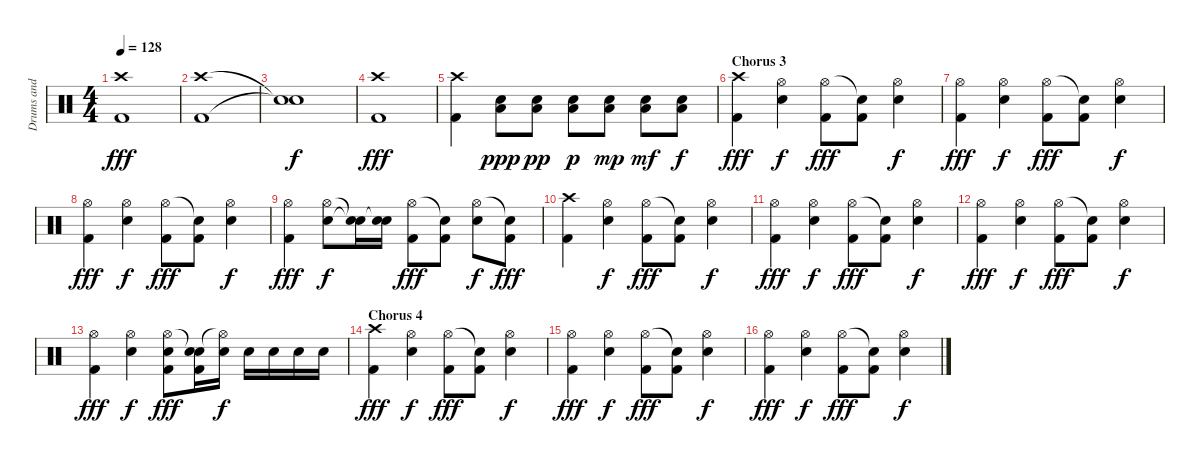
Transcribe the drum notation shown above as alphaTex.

\track ("Drums and Percussion" "Drums and ") {instrument percussion}
\staff {score}
\articulation defaults
\ts (4 4)
\tempo 128
\clef neutral
\ks c
("Crash high (hit)" "Kick (hit) 2").1{dy fff} |
("Crash high (hit)" "Kick (hit) 2").1 |
("Snare (hit)"{t} "Snare (hit)"{t}).1{dy f} |
("Crash high (hit)" "Kick (hit) 2").1{dy fff} |
("Crash high (hit)" "Kick (hit) 2").4 ("Electric Snare (hit)" "Low Floor Tom (hit)").8{dy ppp} ("Electric Snare (hit)" "Low Floor Tom (hit)").8{dy pp} ("Electric Snare (hit)" "Low Floor Tom (hit)").8{dy p} ("Electric Snare (hit)" "Low Floor Tom (hit)").8{dy mp} ("Electric Snare (hit)" "Low Floor Tom (hit)").8{dy mf} ("Electric Snare (hit)" "Low Floor Tom (hit)").8{dy f} |
\section ("" "Chorus 3")
("Crash high (hit)" "Kick (hit) 2").4{dy fff} ("Hi-Hat (open)" "Electric Snare (hit)").4{dy f} ("Hi-Hat (open)" "Kick (hit) 2").8{dy fff} ("Snare (hit)"{t} "Kick (hit) 2").8 ("Hi-Hat (open)" "Electric Snare (hit)").4{dy f} |
("Hi-Hat (open)" "Kick (hit) 2").4{dy fff} ("Hi-Hat (open)" "Electric Snare (hit)").4{dy f} ("Hi-Hat (open)" "Kick (hit) 2").8{dy fff} ("Snare (hit)"{t} "Kick (hit) 2").8 ("Hi-Hat (open)" "Electric Snare (hit)").4{dy f} |
("Hi-Hat (open)" "Kick (hit) 2").4{dy fff} ("Hi-Hat (open)" "Electric Snare (hit)").4{dy f} ("Hi-Hat (open)" "Kick (hit) 2").8{dy fff} ("Snare (hit)"{t} "Kick (hit) 2").8 ("Hi-Hat (open)" "Electric Snare (hit)").4{dy f} |
("Hi-Hat (open)" "Kick (hit) 2").4{dy fff} ("Hi-Hat (open)" "Electric Snare (hit)").8{dy f} ("Snare (hit)"{t} "Snare (hit)"{t}).16 ("Snare (hit)"{t} "Electric Snare (hit)").16 ("Hi-Hat (open)" "Kick (hit) 2").8{dy fff} ("Snare (hit)"{t} "Kick (hit) 2").8 ("Hi-Hat (open)" "Electric Snare (hit)").8{dy f} ("Snare (hit)"{t} "Kick (hit) 2").8{dy fff} |
("Crash high (hit)" "Kick (hit) 2").4 ("Hi-Hat (open)" "Electric Snare (hit)").4{dy f} ("Hi-Hat (open)" "Kick (hit) 2").8{dy fff} ("Snare (hit)"{t} "Kick (hit) 2").8 ("Hi-Hat (open)" "Electric Snare (hit)").4{dy f} |
("Hi-Hat (open)" "Kick (hit) 2").4{dy fff} ("Hi-Hat (open)" "Electric Snare (hit)").4{dy f} ("Hi-Hat (open)" "Kick (hit) 2").8{dy fff} ("Snare (hit)"{t} "Kick (hit) 2").8 ("Hi-Hat (open)" "Electric Snare (hit)").4{dy f} |
("Hi-Hat (open)" "Kick (hit) 2").4{dy fff} ("Hi-Hat (open)" "Electric Snare (hit)").4{dy f} ("Hi-Hat (open)" "Kick (hit) 2").8{dy fff} ("Snare (hit)"{t} "Kick (hit) 2").8 ("Hi-Hat (open)" "Electric Snare (hit)").4{dy f} |
("Hi-Hat (open)" "Kick (hit) 2").4{dy fff} ("Hi-Hat (open)" "Electric Snare (hit)").4{dy f} ("Hi-Hat (open)" "Electric Snare (hit)" "Kick (hit) 2").8{dy fff} ("Snare (hit)"{t} "Electric Snare (hit)" "Kick (hit) 2").16 ("Hi-Hat (open)"{t} "Electric Snare (hit)").16{dy f} "Electric Snare (hit)".16 "Electric Snare (hit)".16 "Electric Snare (hit)".16 "Electric Snare (hit)".16 |
\section ("" "Chorus 4")
("Crash high (hit)" "Kick (hit) 2").4{dy fff} ("Hi-Hat (open)" "Electric Snare (hit)").4{dy f} ("Hi-Hat (open)" "Kick (hit) 2").8{dy fff} ("Snare (hit)"{t} "Kick (hit) 2").8 ("Hi-Hat (open)" "Electric Snare (hit)").4{dy f} |
("Hi-Hat (open)" "Kick (hit) 2").4{dy fff} ("Hi-Hat (open)" "Electric Snare (hit)").4{dy f} ("Hi-Hat (open)" "Kick (hit) 2").8{dy fff} ("Snare (hit)"{t} "Kick (hit) 2").8 ("Hi-Hat (open)" "Electric Snare (hit)").4{dy f} |
("Hi-Hat (open)" "Kick (hit) 2").4{dy fff} ("Hi-Hat (open)" "Electric Snare (hit)").4{dy f} ("Hi-Hat (open)" "Kick (hit) 2").8{dy fff} ("Snare (hit)"{t} "Kick (hit) 2").8 ("Hi-Hat (open)" "Electric Snare (hit)").4{dy f}
